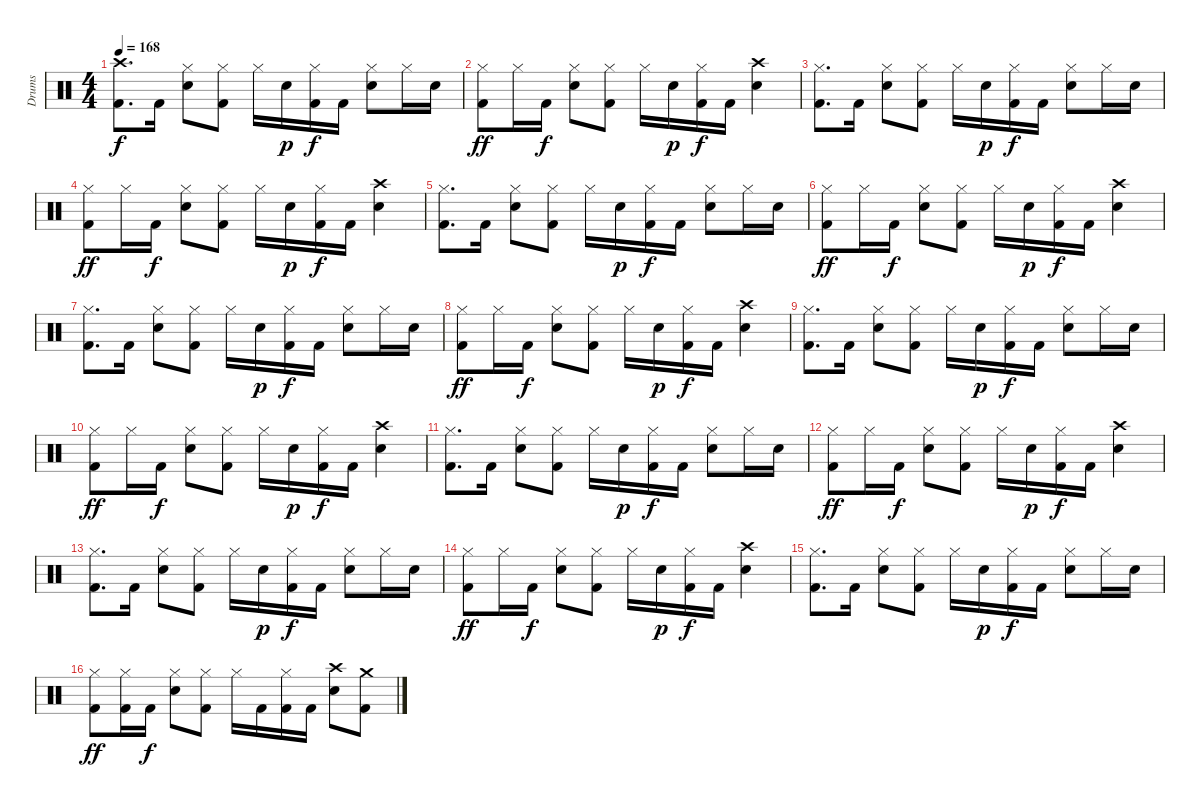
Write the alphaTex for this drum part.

\track ("Drums" "Drums") {instrument percussion}
\staff {score}
\articulation defaults
\ts (4 4)
\tempo 168
\clef neutral
\ks c
("Crash high (hit)" "Kick (hit) 2").8{d dy f} "Kick (hit) 2".16 ("Hi-Hat (closed)" "Snare (hit) 2").8 ("Hi-Hat (closed)" "Kick (hit) 2").8 "Hi-Hat (closed)".16 "Snare (hit) 2".16{dy p} ("Hi-Hat (closed)" "Kick (hit) 2").16{dy f} "Kick (hit) 2".16 ("Hi-Hat (closed)" "Snare (hit) 2").8 "Hi-Hat (closed)".16 "Snare (hit) 2".16 |
("Hi-Hat (closed)" "Kick (hit) 2").8{dy ff} "Hi-Hat (closed)".16 "Kick (hit) 2".16{dy f} ("Hi-Hat (closed)" "Snare (hit) 2").8 ("Hi-Hat (closed)" "Kick (hit) 2").8 "Hi-Hat (closed)".16 "Snare (hit) 2".16{dy p} ("Hi-Hat (closed)" "Kick (hit) 2").16{dy f} "Kick (hit) 2".16 ("Crash high (hit)" "Snare (hit) 2").4 |
("Hi-Hat (closed)" "Kick (hit) 2").8{d} "Kick (hit) 2".16 ("Hi-Hat (closed)" "Snare (hit) 2").8 ("Hi-Hat (closed)" "Kick (hit) 2").8 "Hi-Hat (closed)".16 "Snare (hit) 2".16{dy p} ("Hi-Hat (closed)" "Kick (hit) 2").16{dy f} "Kick (hit) 2".16 ("Hi-Hat (closed)" "Snare (hit) 2").8 "Hi-Hat (closed)".16 "Snare (hit) 2".16 |
("Hi-Hat (closed)" "Kick (hit) 2").8{dy ff} "Hi-Hat (closed)".16 "Kick (hit) 2".16{dy f} ("Hi-Hat (closed)" "Snare (hit) 2").8 ("Hi-Hat (closed)" "Kick (hit) 2").8 "Hi-Hat (closed)".16 "Snare (hit) 2".16{dy p} ("Hi-Hat (closed)" "Kick (hit) 2").16{dy f} "Kick (hit) 2".16 ("Crash high (hit)" "Snare (hit) 2").4 |
("Hi-Hat (closed)" "Kick (hit) 2").8{d} "Kick (hit) 2".16 ("Hi-Hat (closed)" "Snare (hit) 2").8 ("Hi-Hat (closed)" "Kick (hit) 2").8 "Hi-Hat (closed)".16 "Snare (hit) 2".16{dy p} ("Hi-Hat (closed)" "Kick (hit) 2").16{dy f} "Kick (hit) 2".16 ("Hi-Hat (closed)" "Snare (hit) 2").8 "Hi-Hat (closed)".16 "Snare (hit) 2".16 |
("Hi-Hat (closed)" "Kick (hit) 2").8{dy ff} "Hi-Hat (closed)".16 "Kick (hit) 2".16{dy f} ("Hi-Hat (closed)" "Snare (hit) 2").8 ("Hi-Hat (closed)" "Kick (hit) 2").8 "Hi-Hat (closed)".16 "Snare (hit) 2".16{dy p} ("Hi-Hat (closed)" "Kick (hit) 2").16{dy f} "Kick (hit) 2".16 ("Crash high (hit)" "Snare (hit) 2").4 |
("Hi-Hat (closed)" "Kick (hit) 2").8{d} "Kick (hit) 2".16 ("Hi-Hat (closed)" "Snare (hit) 2").8 ("Hi-Hat (closed)" "Kick (hit) 2").8 "Hi-Hat (closed)".16 "Snare (hit) 2".16{dy p} ("Hi-Hat (closed)" "Kick (hit) 2").16{dy f} "Kick (hit) 2".16 ("Hi-Hat (closed)" "Snare (hit) 2").8 "Hi-Hat (closed)".16 "Snare (hit) 2".16 |
("Hi-Hat (closed)" "Kick (hit) 2").8{dy ff} "Hi-Hat (closed)".16 "Kick (hit) 2".16{dy f} ("Hi-Hat (closed)" "Snare (hit) 2").8 ("Hi-Hat (closed)" "Kick (hit) 2").8 "Hi-Hat (closed)".16 "Snare (hit) 2".16{dy p} ("Hi-Hat (closed)" "Kick (hit) 2").16{dy f} "Kick (hit) 2".16 ("Crash high (hit)" "Snare (hit) 2").4 |
("Hi-Hat (closed)" "Kick (hit) 2").8{d} "Kick (hit) 2".16 ("Hi-Hat (closed)" "Snare (hit) 2").8 ("Hi-Hat (closed)" "Kick (hit) 2").8 "Hi-Hat (closed)".16 "Snare (hit) 2".16{dy p} ("Hi-Hat (closed)" "Kick (hit) 2").16{dy f} "Kick (hit) 2".16 ("Hi-Hat (closed)" "Snare (hit) 2").8 "Hi-Hat (closed)".16 "Snare (hit) 2".16 |
("Hi-Hat (closed)" "Kick (hit) 2").8{dy ff} "Hi-Hat (closed)".16 "Kick (hit) 2".16{dy f} ("Hi-Hat (closed)" "Snare (hit) 2").8 ("Hi-Hat (closed)" "Kick (hit) 2").8 "Hi-Hat (closed)".16 "Snare (hit) 2".16{dy p} ("Hi-Hat (closed)" "Kick (hit) 2").16{dy f} "Kick (hit) 2".16 ("Crash high (hit)" "Snare (hit) 2").4 |
("Hi-Hat (closed)" "Kick (hit) 2").8{d} "Kick (hit) 2".16 ("Hi-Hat (closed)" "Snare (hit) 2").8 ("Hi-Hat (closed)" "Kick (hit) 2").8 "Hi-Hat (closed)".16 "Snare (hit) 2".16{dy p} ("Hi-Hat (closed)" "Kick (hit) 2").16{dy f} "Kick (hit) 2".16 ("Hi-Hat (closed)" "Snare (hit) 2").8 "Hi-Hat (closed)".16 "Snare (hit) 2".16 |
("Hi-Hat (closed)" "Kick (hit) 2").8{dy ff} "Hi-Hat (closed)".16 "Kick (hit) 2".16{dy f} ("Hi-Hat (closed)" "Snare (hit) 2").8 ("Hi-Hat (closed)" "Kick (hit) 2").8 "Hi-Hat (closed)".16 "Snare (hit) 2".16{dy p} ("Hi-Hat (closed)" "Kick (hit) 2").16{dy f} "Kick (hit) 2".16 ("Crash high (hit)" "Snare (hit) 2").4 |
("Hi-Hat (closed)" "Kick (hit) 2").8{d} "Kick (hit) 2".16 ("Hi-Hat (closed)" "Snare (hit) 2").8 ("Hi-Hat (closed)" "Kick (hit) 2").8 "Hi-Hat (closed)".16 "Snare (hit) 2".16{dy p} ("Hi-Hat (closed)" "Kick (hit) 2").16{dy f} "Kick (hit) 2".16 ("Hi-Hat (closed)" "Snare (hit) 2").8 "Hi-Hat (closed)".16 "Snare (hit) 2".16 |
("Hi-Hat (closed)" "Kick (hit) 2").8{dy ff} "Hi-Hat (closed)".16 "Kick (hit) 2".16{dy f} ("Hi-Hat (closed)" "Snare (hit) 2").8 ("Hi-Hat (closed)" "Kick (hit) 2").8 "Hi-Hat (closed)".16 "Snare (hit) 2".16{dy p} ("Hi-Hat (closed)" "Kick (hit) 2").16{dy f} "Kick (hit) 2".16 ("Crash high (hit)" "Snare (hit) 2").4 |
("Hi-Hat (closed)" "Kick (hit) 2").8{d} "Kick (hit) 2".16 ("Hi-Hat (closed)" "Snare (hit) 2").8 ("Hi-Hat (closed)" "Kick (hit) 2").8 "Hi-Hat (closed)".16 "Snare (hit) 2".16{dy p} ("Hi-Hat (closed)" "Kick (hit) 2").16{dy f} "Kick (hit) 2".16 ("Hi-Hat (closed)" "Snare (hit) 2").8 "Hi-Hat (closed)".16 "Snare (hit) 2".16 |
("Hi-Hat (closed)" "Kick (hit) 2").8{dy ff} ("Hi-Hat (closed)" "Kick (hit) 2").16 "Kick (hit) 2".16{dy f} ("Hi-Hat (closed)" "Snare (hit) 2").8 ("Hi-Hat (closed)" "Kick (hit) 2").8 "Hi-Hat (closed)".16 "Kick (hit) 2".16 ("Hi-Hat (closed)" "Kick (hit) 2").16 "Kick (hit) 2".16 ("Crash high (hit)" "Snare (hit) 2").8 ("Crash medium (hit)" "Kick (hit) 2").8
